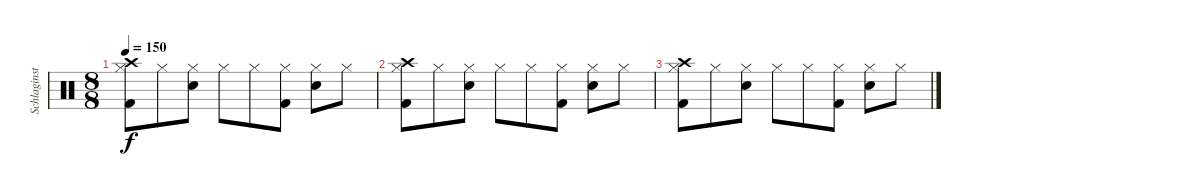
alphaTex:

\track ("Schlaginstrumente - Auswahl" "Schlaginst") {instrument percussion}
\staff {score}
\articulation defaults
\ts (8 8)
\tempo 150
\clef neutral
\ks c
("Hi-Hat (closed)" "Kick (hit) 2" "Crash high (hit)").8{dy f} "Hi-Hat (closed)".8 ("Hi-Hat (closed)" "Snare (hit) 2").8 "Hi-Hat (closed)".8 "Hi-Hat (closed)".8 ("Hi-Hat (closed)" "Kick (hit) 2").8 ("Hi-Hat (closed)" "Snare (hit) 2").8 "Hi-Hat (closed)".8 |
("Hi-Hat (closed)" "Kick (hit) 2" "Crash high (hit)").8 "Hi-Hat (closed)".8 ("Hi-Hat (closed)" "Snare (hit) 2").8 "Hi-Hat (closed)".8 "Hi-Hat (closed)".8 ("Hi-Hat (closed)" "Kick (hit) 2").8 ("Hi-Hat (closed)" "Snare (hit) 2").8 "Hi-Hat (closed)".8 |
("Hi-Hat (closed)" "Kick (hit) 2" "Crash high (hit)").8 "Hi-Hat (closed)".8 ("Hi-Hat (closed)" "Snare (hit) 2").8 "Hi-Hat (closed)".8 "Hi-Hat (closed)".8 ("Hi-Hat (closed)" "Kick (hit) 2").8 ("Hi-Hat (closed)" "Snare (hit) 2").8 "Hi-Hat (closed)".8
